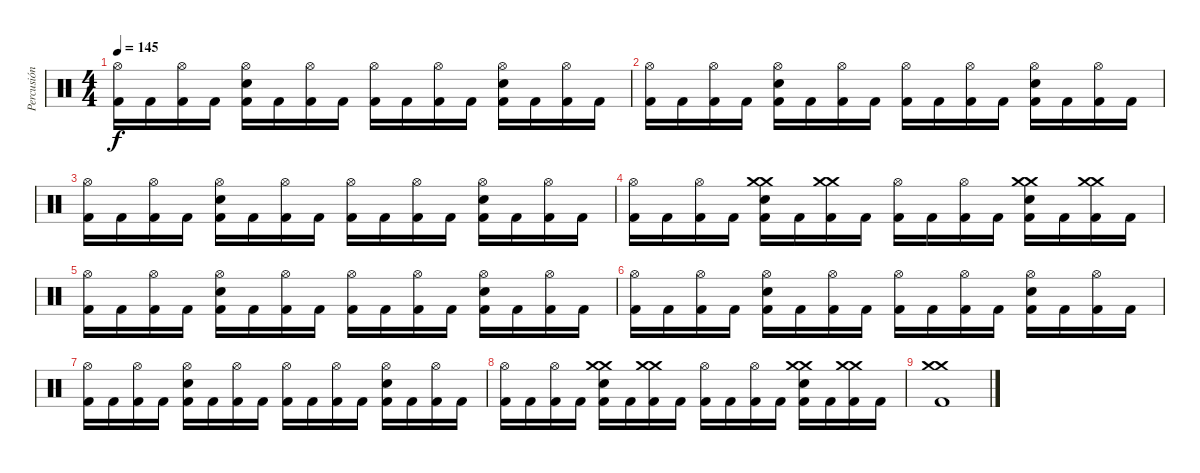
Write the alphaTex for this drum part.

\track ("Percusión" "Percusión") {instrument percussion}
\staff {score}
\articulation defaults
\ts (4 4)
\tempo 145
\clef neutral
\ks c
("Hi-Hat (open)" "Kick (hit) 2").16{dy f} "Kick (hit) 2".16 ("Hi-Hat (open)" "Kick (hit) 2").16 "Kick (hit) 2".16 ("Hi-Hat (open)" "Snare (hit) 2" "Kick (hit) 2").16 "Kick (hit) 2".16 ("Hi-Hat (open)" "Kick (hit) 2").16 "Kick (hit) 2".16 ("Hi-Hat (open)" "Kick (hit) 2").16 "Kick (hit) 2".16 ("Hi-Hat (open)" "Kick (hit) 2").16 "Kick (hit) 2".16 ("Hi-Hat (open)" "Snare (hit) 2" "Kick (hit) 2").16 "Kick (hit) 2".16 ("Hi-Hat (open)" "Kick (hit) 2").16 "Kick (hit) 2".16 |
("Hi-Hat (open)" "Kick (hit) 2").16 "Kick (hit) 2".16 ("Hi-Hat (open)" "Kick (hit) 2").16 "Kick (hit) 2".16 ("Hi-Hat (open)" "Snare (hit) 2" "Kick (hit) 2").16 "Kick (hit) 2".16 ("Hi-Hat (open)" "Kick (hit) 2").16 "Kick (hit) 2".16 ("Hi-Hat (open)" "Kick (hit) 2").16 "Kick (hit) 2".16 ("Hi-Hat (open)" "Kick (hit) 2").16 "Kick (hit) 2".16 ("Hi-Hat (open)" "Snare (hit) 2" "Kick (hit) 2").16 "Kick (hit) 2".16 ("Hi-Hat (open)" "Kick (hit) 2").16 "Kick (hit) 2".16 |
("Hi-Hat (open)" "Kick (hit) 2").16 "Kick (hit) 2".16 ("Hi-Hat (open)" "Kick (hit) 2").16 "Kick (hit) 2".16 ("Hi-Hat (open)" "Snare (hit) 2" "Kick (hit) 2").16 "Kick (hit) 2".16 ("Hi-Hat (open)" "Kick (hit) 2").16 "Kick (hit) 2".16 ("Hi-Hat (open)" "Kick (hit) 2").16 "Kick (hit) 2".16 ("Hi-Hat (open)" "Kick (hit) 2").16 "Kick (hit) 2".16 ("Hi-Hat (open)" "Snare (hit) 2" "Kick (hit) 2").16 "Kick (hit) 2".16 ("Hi-Hat (open)" "Kick (hit) 2").16 "Kick (hit) 2".16 |
("Hi-Hat (open)" "Kick (hit) 2").16 "Kick (hit) 2".16 ("Hi-Hat (open)" "Kick (hit) 2").16 "Kick (hit) 2".16 ("Crash medium (hit)" "Crash medium (hit)" "Snare (hit) 2" "Kick (hit) 2").16 "Kick (hit) 2".16 ("Crash medium (hit)" "Crash medium (hit)" "Kick (hit) 2").16 "Kick (hit) 2".16 ("Hi-Hat (open)" "Kick (hit) 2").16 "Kick (hit) 2".16 ("Hi-Hat (open)" "Kick (hit) 2").16 "Kick (hit) 2".16 ("Crash medium (hit)" "Crash medium (hit)" "Snare (hit) 2" "Kick (hit) 2").16 "Kick (hit) 2".16 ("Crash medium (hit)" "Crash medium (hit)" "Kick (hit) 2").16 "Kick (hit) 2".16 |
("Hi-Hat (open)" "Kick (hit) 2").16 "Kick (hit) 2".16 ("Hi-Hat (open)" "Kick (hit) 2").16 "Kick (hit) 2".16 ("Hi-Hat (open)" "Snare (hit) 2" "Kick (hit) 2").16 "Kick (hit) 2".16 ("Hi-Hat (open)" "Kick (hit) 2").16 "Kick (hit) 2".16 ("Hi-Hat (open)" "Kick (hit) 2").16 "Kick (hit) 2".16 ("Hi-Hat (open)" "Kick (hit) 2").16 "Kick (hit) 2".16 ("Hi-Hat (open)" "Snare (hit) 2" "Kick (hit) 2").16 "Kick (hit) 2".16 ("Hi-Hat (open)" "Kick (hit) 2").16 "Kick (hit) 2".16 |
("Hi-Hat (open)" "Kick (hit) 2").16 "Kick (hit) 2".16 ("Hi-Hat (open)" "Kick (hit) 2").16 "Kick (hit) 2".16 ("Hi-Hat (open)" "Snare (hit) 2" "Kick (hit) 2").16 "Kick (hit) 2".16 ("Hi-Hat (open)" "Kick (hit) 2").16 "Kick (hit) 2".16 ("Hi-Hat (open)" "Kick (hit) 2").16 "Kick (hit) 2".16 ("Hi-Hat (open)" "Kick (hit) 2").16 "Kick (hit) 2".16 ("Hi-Hat (open)" "Snare (hit) 2" "Kick (hit) 2").16 "Kick (hit) 2".16 ("Hi-Hat (open)" "Kick (hit) 2").16 "Kick (hit) 2".16 |
("Hi-Hat (open)" "Kick (hit) 2").16 "Kick (hit) 2".16 ("Hi-Hat (open)" "Kick (hit) 2").16 "Kick (hit) 2".16 ("Hi-Hat (open)" "Snare (hit) 2" "Kick (hit) 2").16 "Kick (hit) 2".16 ("Hi-Hat (open)" "Kick (hit) 2").16 "Kick (hit) 2".16 ("Hi-Hat (open)" "Kick (hit) 2").16 "Kick (hit) 2".16 ("Hi-Hat (open)" "Kick (hit) 2").16 "Kick (hit) 2".16 ("Hi-Hat (open)" "Snare (hit) 2" "Kick (hit) 2").16 "Kick (hit) 2".16 ("Hi-Hat (open)" "Kick (hit) 2").16 "Kick (hit) 2".16 |
("Hi-Hat (open)" "Kick (hit) 2").16 "Kick (hit) 2".16 ("Hi-Hat (open)" "Kick (hit) 2").16 "Kick (hit) 2".16 ("Crash medium (hit)" "Crash medium (hit)" "Snare (hit) 2" "Kick (hit) 2").16 "Kick (hit) 2".16 ("Crash medium (hit)" "Crash medium (hit)" "Kick (hit) 2").16 "Kick (hit) 2".16 ("Hi-Hat (open)" "Kick (hit) 2").16 "Kick (hit) 2".16 ("Hi-Hat (open)" "Kick (hit) 2").16 "Kick (hit) 2".16 ("Crash medium (hit)" "Crash medium (hit)" "Snare (hit) 2" "Kick (hit) 2").16 "Kick (hit) 2".16 ("Crash medium (hit)" "Crash medium (hit)" "Kick (hit) 2").16 "Kick (hit) 2".16 |
("Crash medium (hit)" "Crash medium (hit)" "Kick (hit) 2").1
